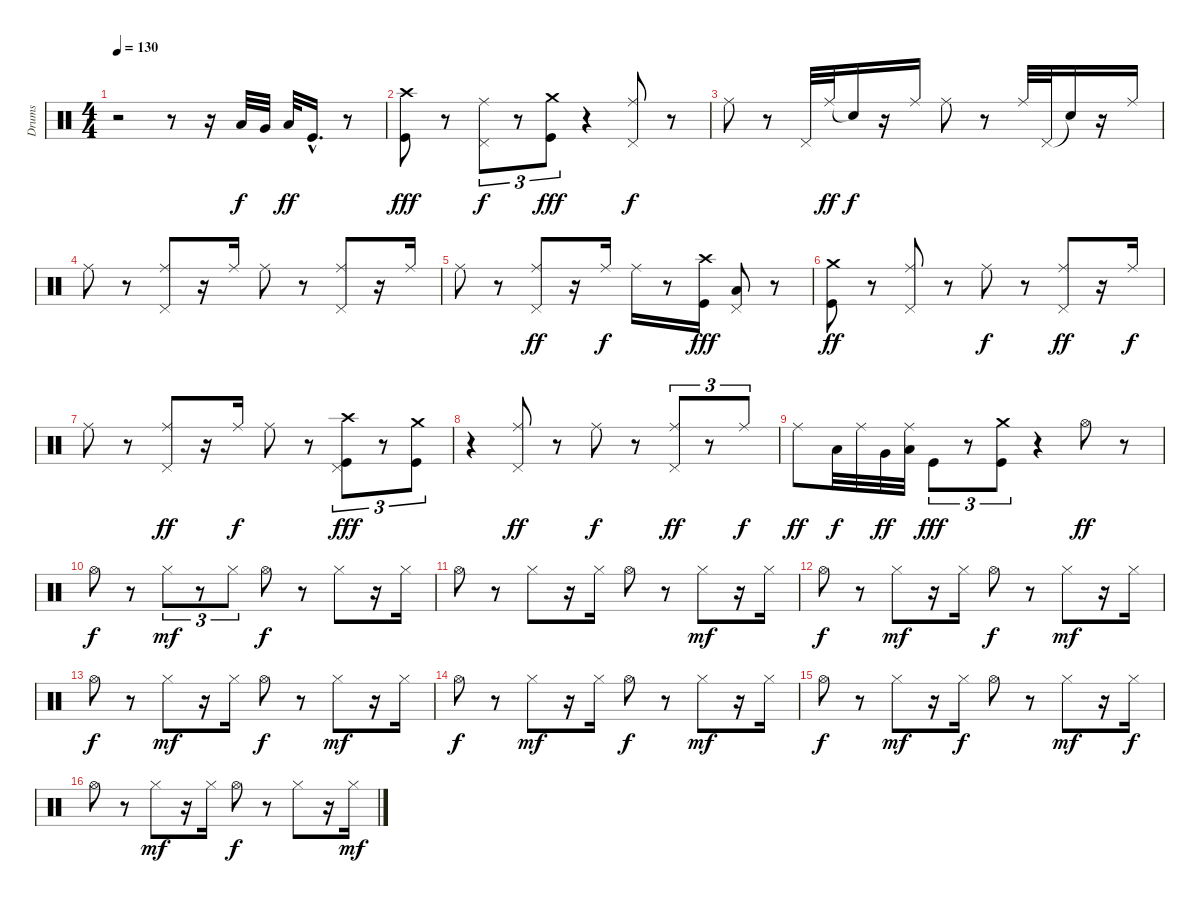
\track ("Drums" "Drums") {instrument percussion}
\staff {score}
\articulation defaults
\ts (4 4)
\tempo 130
\clef neutral
\ks c
r.2{dy f} r.8 r.16 "Low Tom (hit)".32 "Very Low Tom (hit)".32 "Low Floor Tom (hit)".32{dy ff} "Kick (hit)"{hac}.16{d} r.8 |
("Crash high (hit)" "Kick (hit)").8{dy fff} r.8 ("Ride (middle)" "Pedal Hi-Hat (hit)").8{tu (3 2) dy f} r.8{tu (3 2)} ("Crash medium (hit)" "Kick (hit)").8{tu (3 2) dy fff} r.4 ("Ride (middle)" "Pedal Hi-Hat (hit)").8{dy f} r.8 |
"Ride (middle)".8 r.8 "Pedal Hi-Hat (hit)".32 "Ride (middle)".32{dy ff} "Snare (hit)"{t}.16{dy f} r.16 "Ride (middle)".16 "Ride (middle)".8 r.8 "Ride (middle)".32 "Pedal Hi-Hat (hit)".32 "Snare (hit)"{t}.16 r.16 "Ride (middle)".16 |
"Ride (middle)".8 r.8 ("Ride (middle)" "Pedal Hi-Hat (hit)").8 r.16 "Ride (middle)".16 "Ride (middle)".8 r.8 ("Ride (middle)" "Pedal Hi-Hat (hit)").8 r.16 "Ride (middle)".16 |
"Ride (middle)".8 r.8 ("Ride (middle)" "Pedal Hi-Hat (hit)").8{dy ff} r.16 "Ride (middle)".16{dy f} "Ride (middle)".16 r.8 ("Crash high (hit)" "Kick (hit)").16{dy fff} ("Pedal Hi-Hat (hit)" "Low Floor Tom (hit)").8 r.8 |
("Crash medium (hit)" "Kick (hit)").8{dy ff} r.8 ("Ride (middle)" "Pedal Hi-Hat (hit)").8 r.8 "Ride (middle)".8{dy f} r.8 ("Ride (middle)" "Pedal Hi-Hat (hit)").8{dy ff} r.16 "Ride (middle)".16{dy f} |
"Ride (middle)".8 r.8 ("Ride (middle)" "Pedal Hi-Hat (hit)").8{dy ff} r.16 "Ride (middle)".16{dy f} "Ride (middle)".8 r.8 ("Crash high (hit)" "Pedal Hi-Hat (hit)" "Kick (hit)").8{tu (3 2) dy fff} r.8{tu (3 2)} ("Crash medium (hit)" "Kick (hit)").8{tu (3 2)} |
r.4 ("Ride (middle)" "Pedal Hi-Hat (hit)").8{dy ff} r.8 "Ride (middle)".8{dy f} r.8 ("Ride (middle)" "Pedal Hi-Hat (hit)").8{tu (3 2) dy ff} r.8{tu (3 2)} "Ride (middle)".8{tu (3 2) dy f} |
"Ride (middle)".8{dy ff} "Low Tom (hit)".32{dy f} "Ride (middle)".32 "Very Low Tom (hit)".32{dy ff} ("Ride (middle)" "Low Floor Tom (hit)").32 "Kick (hit)".8{tu (3 2) dy fff} r.8{tu (3 2)} ("Crash medium (hit)" "Kick (hit)").8{tu (3 2)} r.4 "Hi-Hat (open)".8{dy ff} r.8 |
"Hi-Hat (open)".8{dy f} r.8 "Hi-Hat (closed)".8{tu (3 2) dy mf} r.8{tu (3 2)} "Hi-Hat (closed)".8{tu (3 2)} "Hi-Hat (open)".8{dy f} r.8 "Hi-Hat (closed)".8 r.16 "Hi-Hat (closed)".16 |
"Hi-Hat (open)".8 r.8 "Hi-Hat (closed)".8 r.16 "Hi-Hat (closed)".16 "Hi-Hat (open)".8 r.8 "Hi-Hat (closed)".8{dy mf} r.16 "Hi-Hat (closed)".16 |
"Hi-Hat (open)".8{dy f} r.8 "Hi-Hat (closed)".8{dy mf} r.16 "Hi-Hat (closed)".16 "Hi-Hat (open)".8{dy f} r.8 "Hi-Hat (closed)".8{dy mf} r.16 "Hi-Hat (closed)".16 |
"Hi-Hat (open)".8{dy f} r.8 "Hi-Hat (closed)".8{dy mf} r.16 "Hi-Hat (closed)".16 "Hi-Hat (open)".8{dy f} r.8 "Hi-Hat (closed)".8{dy mf} r.16 "Hi-Hat (closed)".16 |
"Hi-Hat (open)".8{dy f} r.8 "Hi-Hat (closed)".8{dy mf} r.16 "Hi-Hat (closed)".16 "Hi-Hat (open)".8{dy f} r.8 "Hi-Hat (closed)".8{dy mf} r.16 "Hi-Hat (closed)".16 |
"Hi-Hat (open)".8{dy f} r.8 "Hi-Hat (closed)".8{dy mf} r.16 "Hi-Hat (closed)".16{dy f} "Hi-Hat (open)".8 r.8 "Hi-Hat (closed)".8{dy mf} r.16 "Hi-Hat (closed)".16{dy f} |
"Hi-Hat (open)".8 r.8 "Hi-Hat (closed)".8{dy mf} r.16 "Hi-Hat (closed)".16 "Hi-Hat (open)".8{dy f} r.8 "Hi-Hat (closed)".8 r.16 "Hi-Hat (closed)".16{dy mf}
